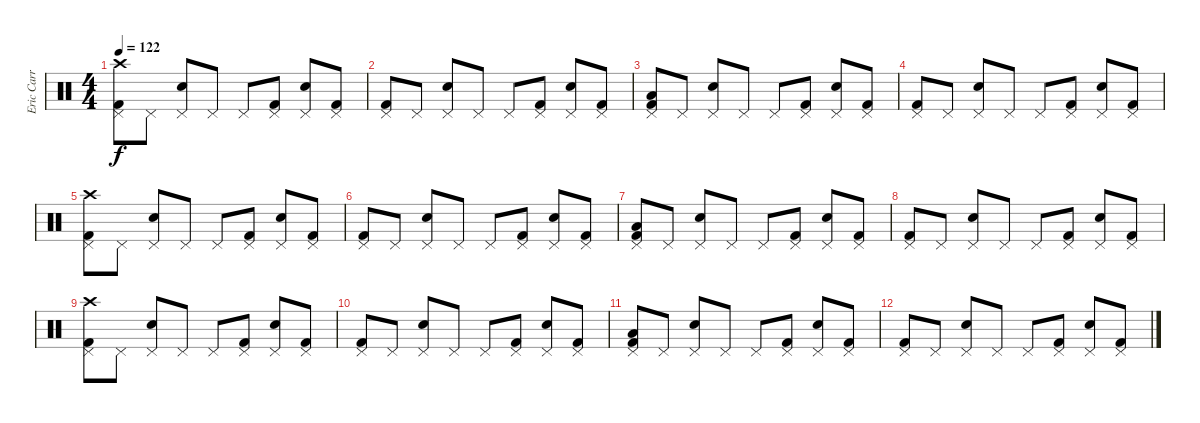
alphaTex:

\track ("Eric Carr" "Eric Carr") {instrument percussion}
\staff {score}
\articulation defaults
\ts (4 4)
\tempo 122
\clef neutral
\ks c
("Kick (hit) 2" "Pedal Hi-Hat (hit)" "Crash high (hit)").8{dy f} "Pedal Hi-Hat (hit)".8 ("Pedal Hi-Hat (hit)" "Snare (hit) 2").8 "Pedal Hi-Hat (hit)".8 "Pedal Hi-Hat (hit)".8 ("Kick (hit) 2" "Pedal Hi-Hat (hit)").8 ("Pedal Hi-Hat (hit)" "Snare (hit) 2").8 ("Kick (hit) 2" "Pedal Hi-Hat (hit)").8 |
("Kick (hit) 2" "Pedal Hi-Hat (hit)").8 "Pedal Hi-Hat (hit)".8 ("Pedal Hi-Hat (hit)" "Snare (hit) 2").8 "Pedal Hi-Hat (hit)".8 "Pedal Hi-Hat (hit)".8 ("Kick (hit) 2" "Pedal Hi-Hat (hit)").8 ("Pedal Hi-Hat (hit)" "Snare (hit) 2").8 ("Kick (hit) 2" "Pedal Hi-Hat (hit)").8 |
("Kick (hit) 2" "Pedal Hi-Hat (hit)" "Low Tom (hit)").8 "Pedal Hi-Hat (hit)".8 ("Pedal Hi-Hat (hit)" "Snare (hit) 2").8 "Pedal Hi-Hat (hit)".8 "Pedal Hi-Hat (hit)".8 ("Kick (hit) 2" "Pedal Hi-Hat (hit)").8 ("Pedal Hi-Hat (hit)" "Snare (hit) 2").8 ("Kick (hit) 2" "Pedal Hi-Hat (hit)").8 |
("Kick (hit) 2" "Pedal Hi-Hat (hit)").8 "Pedal Hi-Hat (hit)".8 ("Pedal Hi-Hat (hit)" "Snare (hit) 2").8 "Pedal Hi-Hat (hit)".8 "Pedal Hi-Hat (hit)".8 ("Kick (hit) 2" "Pedal Hi-Hat (hit)").8 ("Pedal Hi-Hat (hit)" "Snare (hit) 2").8 ("Kick (hit) 2" "Pedal Hi-Hat (hit)").8 |
("Kick (hit) 2" "Pedal Hi-Hat (hit)" "Crash high (hit)").8{volume 8} "Pedal Hi-Hat (hit)".8 ("Pedal Hi-Hat (hit)" "Snare (hit) 2").8 "Pedal Hi-Hat (hit)".8 "Pedal Hi-Hat (hit)".8 ("Kick (hit) 2" "Pedal Hi-Hat (hit)").8 ("Pedal Hi-Hat (hit)" "Snare (hit) 2").8 ("Kick (hit) 2" "Pedal Hi-Hat (hit)").8 |
("Kick (hit) 2" "Pedal Hi-Hat (hit)").8 "Pedal Hi-Hat (hit)".8 ("Pedal Hi-Hat (hit)" "Snare (hit) 2").8 "Pedal Hi-Hat (hit)".8 "Pedal Hi-Hat (hit)".8 ("Kick (hit) 2" "Pedal Hi-Hat (hit)").8 ("Pedal Hi-Hat (hit)" "Snare (hit) 2").8 ("Kick (hit) 2" "Pedal Hi-Hat (hit)").8 |
("Kick (hit) 2" "Pedal Hi-Hat (hit)" "Low Tom (hit)").8 "Pedal Hi-Hat (hit)".8 ("Pedal Hi-Hat (hit)" "Snare (hit) 2").8 "Pedal Hi-Hat (hit)".8 "Pedal Hi-Hat (hit)".8 ("Kick (hit) 2" "Pedal Hi-Hat (hit)").8 ("Pedal Hi-Hat (hit)" "Snare (hit) 2").8 ("Kick (hit) 2" "Pedal Hi-Hat (hit)").8 |
("Kick (hit) 2" "Pedal Hi-Hat (hit)").8 "Pedal Hi-Hat (hit)".8 ("Pedal Hi-Hat (hit)" "Snare (hit) 2").8 "Pedal Hi-Hat (hit)".8 "Pedal Hi-Hat (hit)".8 ("Kick (hit) 2" "Pedal Hi-Hat (hit)").8 ("Pedal Hi-Hat (hit)" "Snare (hit) 2").8 ("Kick (hit) 2" "Pedal Hi-Hat (hit)").8 |
("Kick (hit) 2" "Pedal Hi-Hat (hit)" "Crash high (hit)").8{volume 0} "Pedal Hi-Hat (hit)".8 ("Pedal Hi-Hat (hit)" "Snare (hit) 2").8 "Pedal Hi-Hat (hit)".8 "Pedal Hi-Hat (hit)".8 ("Kick (hit) 2" "Pedal Hi-Hat (hit)").8 ("Pedal Hi-Hat (hit)" "Snare (hit) 2").8 ("Kick (hit) 2" "Pedal Hi-Hat (hit)").8 |
("Kick (hit) 2" "Pedal Hi-Hat (hit)").8 "Pedal Hi-Hat (hit)".8 ("Pedal Hi-Hat (hit)" "Snare (hit) 2").8 "Pedal Hi-Hat (hit)".8 "Pedal Hi-Hat (hit)".8 ("Kick (hit) 2" "Pedal Hi-Hat (hit)").8 ("Pedal Hi-Hat (hit)" "Snare (hit) 2").8 ("Kick (hit) 2" "Pedal Hi-Hat (hit)").8 |
("Kick (hit) 2" "Pedal Hi-Hat (hit)" "Low Tom (hit)").8 "Pedal Hi-Hat (hit)".8 ("Pedal Hi-Hat (hit)" "Snare (hit) 2").8 "Pedal Hi-Hat (hit)".8 "Pedal Hi-Hat (hit)".8 ("Kick (hit) 2" "Pedal Hi-Hat (hit)").8 ("Pedal Hi-Hat (hit)" "Snare (hit) 2").8 ("Kick (hit) 2" "Pedal Hi-Hat (hit)").8 |
("Kick (hit) 2" "Pedal Hi-Hat (hit)").8 "Pedal Hi-Hat (hit)".8 ("Pedal Hi-Hat (hit)" "Snare (hit) 2").8 "Pedal Hi-Hat (hit)".8 "Pedal Hi-Hat (hit)".8 ("Kick (hit) 2" "Pedal Hi-Hat (hit)").8 ("Pedal Hi-Hat (hit)" "Snare (hit) 2").8 ("Kick (hit) 2" "Pedal Hi-Hat (hit)").8
